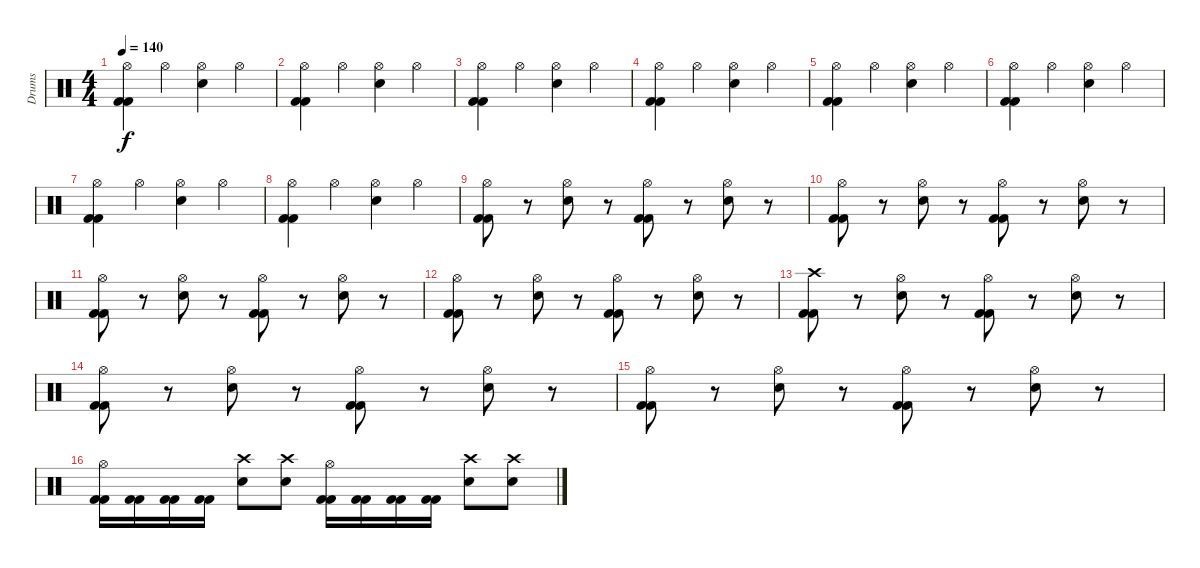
\track ("Drums" "Drums") {instrument percussion}
\staff {score}
\articulation defaults
\ts (4 4)
\tempo 140
\clef neutral
\ks c
("Hi-Hat (open)" "Kick (hit) 2" "Kick (hit) 2").4{dy f} "Hi-Hat (open)".4 ("Hi-Hat (open)" "Electric Snare (hit)").4 "Hi-Hat (open)".4 |
("Hi-Hat (open)" "Kick (hit) 2" "Kick (hit) 2").4 "Hi-Hat (open)".4 ("Hi-Hat (open)" "Electric Snare (hit)").4 "Hi-Hat (open)".4 |
("Hi-Hat (open)" "Kick (hit) 2" "Kick (hit) 2").4 "Hi-Hat (open)".4 ("Hi-Hat (open)" "Electric Snare (hit)").4 "Hi-Hat (open)".4 |
("Hi-Hat (open)" "Kick (hit) 2" "Kick (hit) 2").4 "Hi-Hat (open)".4 ("Hi-Hat (open)" "Electric Snare (hit)").4 "Hi-Hat (open)".4 |
("Hi-Hat (open)" "Kick (hit) 2" "Kick (hit) 2").4 "Hi-Hat (open)".4 ("Hi-Hat (open)" "Electric Snare (hit)").4 "Hi-Hat (open)".4 |
("Hi-Hat (open)" "Kick (hit) 2" "Kick (hit) 2").4 "Hi-Hat (open)".4 ("Hi-Hat (open)" "Electric Snare (hit)").4 "Hi-Hat (open)".4 |
("Hi-Hat (open)" "Kick (hit) 2" "Kick (hit) 2").4 "Hi-Hat (open)".4 ("Hi-Hat (open)" "Electric Snare (hit)").4 "Hi-Hat (open)".4 |
("Hi-Hat (open)" "Kick (hit) 2" "Kick (hit) 2").4 "Hi-Hat (open)".4 ("Hi-Hat (open)" "Electric Snare (hit)").4 "Hi-Hat (open)".4 |
("Hi-Hat (open)" "Kick (hit) 2" "Kick (hit) 2").8 r.8 ("Hi-Hat (open)" "Electric Snare (hit)").8 r.8 ("Hi-Hat (open)" "Kick (hit) 2" "Kick (hit) 2").8 r.8 ("Hi-Hat (open)" "Electric Snare (hit)").8 r.8 |
("Hi-Hat (open)" "Kick (hit) 2" "Kick (hit) 2").8 r.8 ("Hi-Hat (open)" "Electric Snare (hit)").8 r.8 ("Hi-Hat (open)" "Kick (hit) 2" "Kick (hit) 2").8 r.8 ("Hi-Hat (open)" "Electric Snare (hit)").8 r.8 |
("Hi-Hat (open)" "Kick (hit) 2" "Kick (hit) 2").8 r.8 ("Hi-Hat (open)" "Electric Snare (hit)").8 r.8 ("Hi-Hat (open)" "Kick (hit) 2" "Kick (hit) 2").8 r.8 ("Hi-Hat (open)" "Electric Snare (hit)").8 r.8 |
("Hi-Hat (open)" "Kick (hit) 2" "Kick (hit) 2").8 r.8 ("Hi-Hat (open)" "Electric Snare (hit)").8 r.8 ("Hi-Hat (open)" "Kick (hit) 2" "Kick (hit) 2").8 r.8 ("Hi-Hat (open)" "Electric Snare (hit)").8 r.8 |
("Crash high (hit)" "Kick (hit) 2" "Kick (hit) 2").8 r.8 ("Hi-Hat (open)" "Electric Snare (hit)").8 r.8 ("Hi-Hat (open)" "Kick (hit) 2" "Kick (hit) 2").8 r.8 ("Hi-Hat (open)" "Electric Snare (hit)").8 r.8 |
("Hi-Hat (open)" "Kick (hit) 2" "Kick (hit) 2").8 r.8 ("Hi-Hat (open)" "Electric Snare (hit)").8 r.8 ("Hi-Hat (open)" "Kick (hit) 2" "Kick (hit) 2").8 r.8 ("Hi-Hat (open)" "Electric Snare (hit)").8 r.8 |
("Hi-Hat (open)" "Kick (hit) 2" "Kick (hit) 2").8 r.8 ("Hi-Hat (open)" "Electric Snare (hit)").8 r.8 ("Hi-Hat (open)" "Kick (hit) 2" "Kick (hit) 2").8 r.8 ("Hi-Hat (open)" "Electric Snare (hit)").8 r.8 |
("Hi-Hat (open)" "Kick (hit) 2" "Kick (hit) 2").16 ("Kick (hit) 2" "Kick (hit) 2").16 ("Kick (hit) 2" "Kick (hit) 2").16 ("Kick (hit) 2" "Kick (hit) 2").16 ("Crash high (hit)" "Electric Snare (hit)").8 ("Crash high (hit)" "Electric Snare (hit)").8 ("Hi-Hat (open)" "Kick (hit) 2" "Kick (hit) 2").16 ("Kick (hit) 2" "Kick (hit) 2").16 ("Kick (hit) 2" "Kick (hit) 2").16 ("Kick (hit) 2" "Kick (hit) 2").16 ("Crash high (hit)" "Electric Snare (hit)").8 ("Crash high (hit)" "Electric Snare (hit)").8
